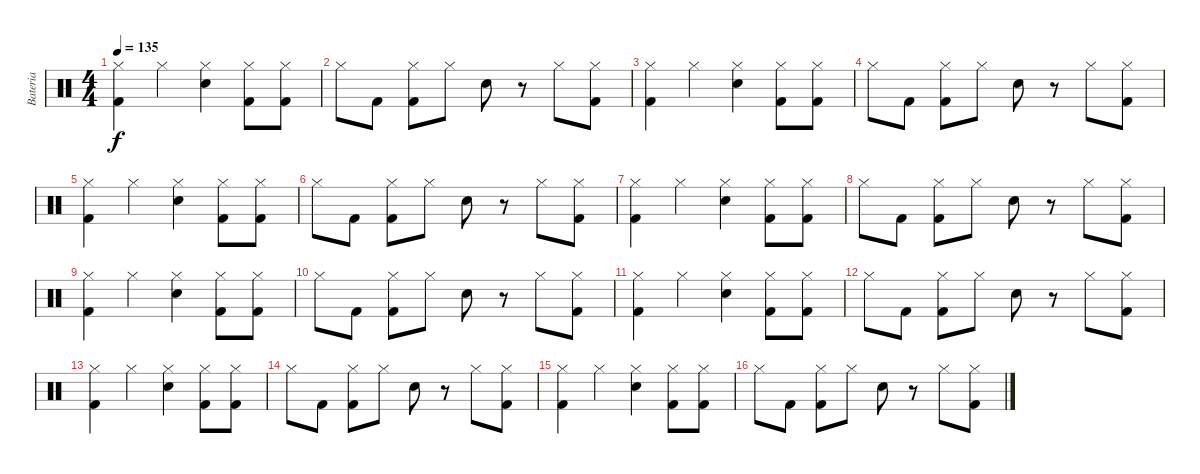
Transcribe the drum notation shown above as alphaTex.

\track ("Bateria" "Bateria") {instrument percussion}
\staff {score}
\articulation defaults
\ts (4 4)
\tempo 135
\clef neutral
\ks c
("Kick (hit) 2" "Hi-Hat (closed)").4{dy f} "Hi-Hat (closed)".4 ("Snare (hit) 2" "Hi-Hat (closed)").4 ("Kick (hit) 2" "Hi-Hat (closed)").8 ("Kick (hit) 2" "Hi-Hat (closed)").8 |
"Hi-Hat (closed)".8 "Kick (hit) 2".8 ("Kick (hit) 2" "Hi-Hat (closed)").8 "Hi-Hat (closed)".8 "Snare (hit) 2".8 r.8 "Hi-Hat (closed)".8 ("Kick (hit) 2" "Hi-Hat (closed)").8 |
("Kick (hit) 2" "Hi-Hat (closed)").4 "Hi-Hat (closed)".4 ("Snare (hit) 2" "Hi-Hat (closed)").4 ("Kick (hit) 2" "Hi-Hat (closed)").8 ("Kick (hit) 2" "Hi-Hat (closed)").8 |
"Hi-Hat (closed)".8 "Kick (hit) 2".8 ("Kick (hit) 2" "Hi-Hat (closed)").8 "Hi-Hat (closed)".8 "Snare (hit) 2".8 r.8 "Hi-Hat (closed)".8 ("Kick (hit) 2" "Hi-Hat (closed)").8 |
("Kick (hit) 2" "Hi-Hat (closed)").4 "Hi-Hat (closed)".4 ("Snare (hit) 2" "Hi-Hat (closed)").4 ("Kick (hit) 2" "Hi-Hat (closed)").8 ("Kick (hit) 2" "Hi-Hat (closed)").8 |
"Hi-Hat (closed)".8 "Kick (hit) 2".8 ("Kick (hit) 2" "Hi-Hat (closed)").8 "Hi-Hat (closed)".8 "Snare (hit) 2".8 r.8 "Hi-Hat (closed)".8 ("Kick (hit) 2" "Hi-Hat (closed)").8 |
("Kick (hit) 2" "Hi-Hat (closed)").4 "Hi-Hat (closed)".4 ("Snare (hit) 2" "Hi-Hat (closed)").4 ("Kick (hit) 2" "Hi-Hat (closed)").8 ("Kick (hit) 2" "Hi-Hat (closed)").8 |
"Hi-Hat (closed)".8 "Kick (hit) 2".8 ("Kick (hit) 2" "Hi-Hat (closed)").8 "Hi-Hat (closed)".8 "Snare (hit) 2".8 r.8 "Hi-Hat (closed)".8 ("Kick (hit) 2" "Hi-Hat (closed)").8 |
("Kick (hit) 2" "Hi-Hat (closed)").4 "Hi-Hat (closed)".4 ("Snare (hit) 2" "Hi-Hat (closed)").4 ("Kick (hit) 2" "Hi-Hat (closed)").8 ("Kick (hit) 2" "Hi-Hat (closed)").8 |
"Hi-Hat (closed)".8 "Kick (hit) 2".8 ("Kick (hit) 2" "Hi-Hat (closed)").8 "Hi-Hat (closed)".8 "Snare (hit) 2".8 r.8 "Hi-Hat (closed)".8 ("Kick (hit) 2" "Hi-Hat (closed)").8 |
("Kick (hit) 2" "Hi-Hat (closed)").4 "Hi-Hat (closed)".4 ("Snare (hit) 2" "Hi-Hat (closed)").4 ("Kick (hit) 2" "Hi-Hat (closed)").8 ("Kick (hit) 2" "Hi-Hat (closed)").8 |
"Hi-Hat (closed)".8 "Kick (hit) 2".8 ("Kick (hit) 2" "Hi-Hat (closed)").8 "Hi-Hat (closed)".8 "Snare (hit) 2".8 r.8 "Hi-Hat (closed)".8 ("Kick (hit) 2" "Hi-Hat (closed)").8 |
("Kick (hit) 2" "Hi-Hat (closed)").4 "Hi-Hat (closed)".4 ("Snare (hit) 2" "Hi-Hat (closed)").4 ("Kick (hit) 2" "Hi-Hat (closed)").8 ("Kick (hit) 2" "Hi-Hat (closed)").8 |
"Hi-Hat (closed)".8 "Kick (hit) 2".8 ("Kick (hit) 2" "Hi-Hat (closed)").8 "Hi-Hat (closed)".8 "Snare (hit) 2".8 r.8 "Hi-Hat (closed)".8 ("Kick (hit) 2" "Hi-Hat (closed)").8 |
("Kick (hit) 2" "Hi-Hat (closed)").4 "Hi-Hat (closed)".4 ("Snare (hit) 2" "Hi-Hat (closed)").4 ("Kick (hit) 2" "Hi-Hat (closed)").8 ("Kick (hit) 2" "Hi-Hat (closed)").8 |
"Hi-Hat (closed)".8 "Kick (hit) 2".8 ("Kick (hit) 2" "Hi-Hat (closed)").8 "Hi-Hat (closed)".8 "Snare (hit) 2".8 r.8 "Hi-Hat (closed)".8 ("Kick (hit) 2" "Hi-Hat (closed)").8
